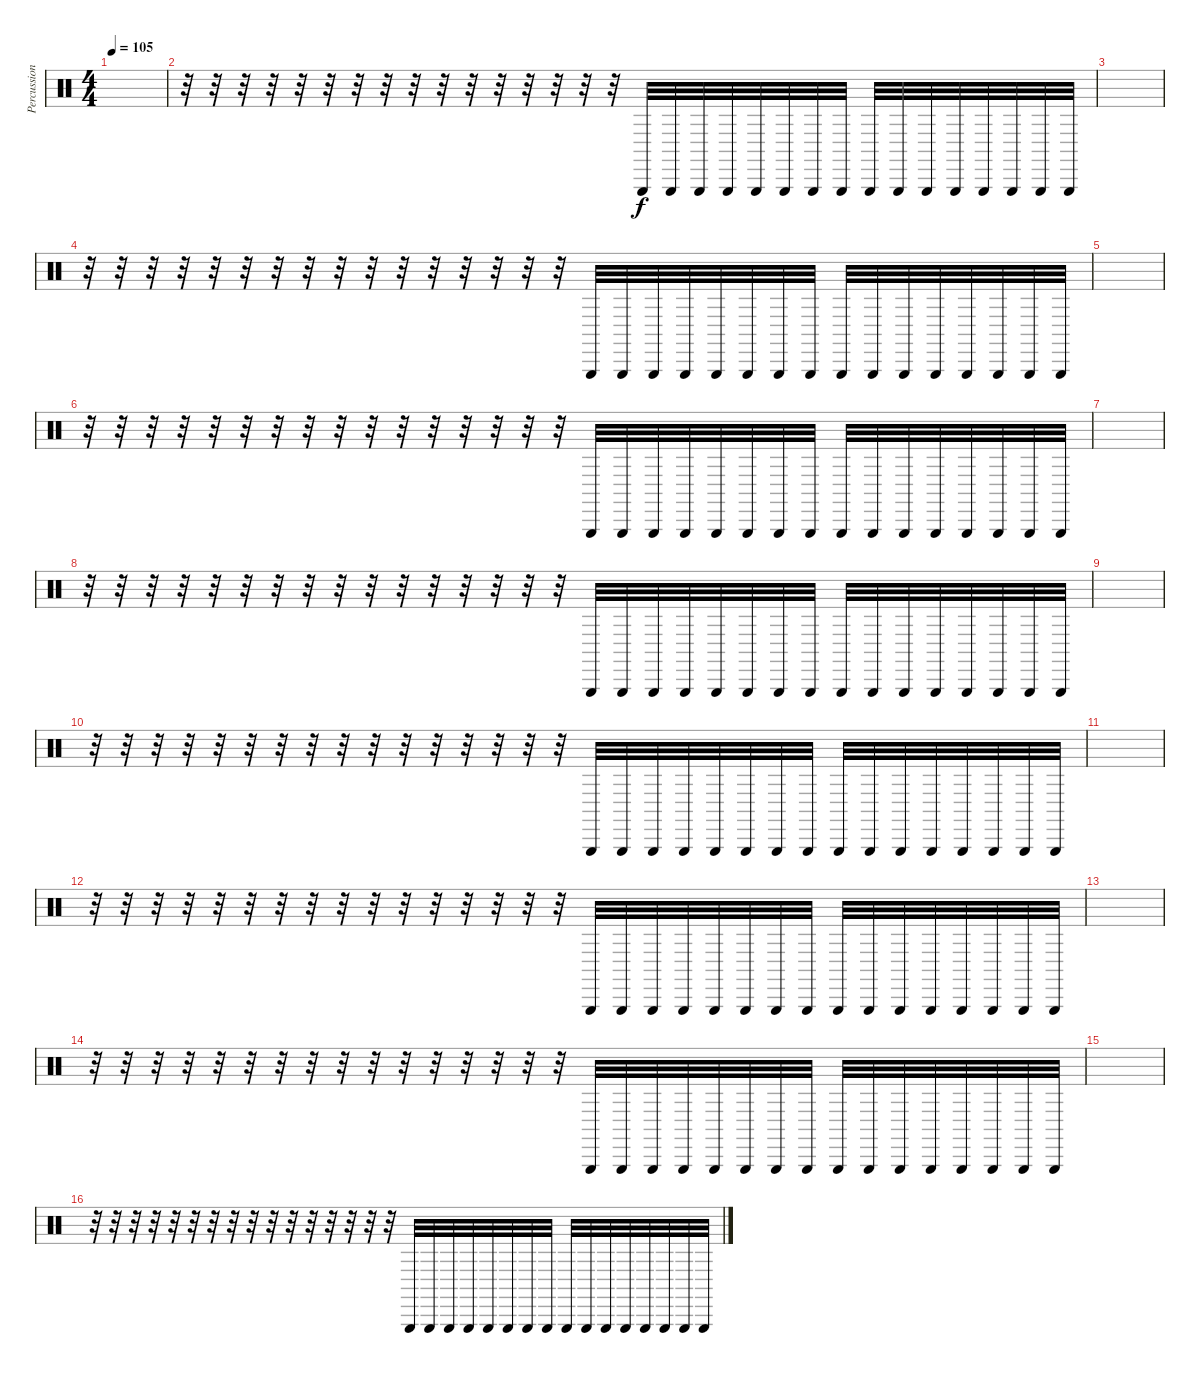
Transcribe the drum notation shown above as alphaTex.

\track ("Percussion" "Percussion") {instrument percussion}
\staff {score}
\articulation defaults
\ts (4 4)
\tempo 105
\clef neutral
\ks c
|
r.32 r.32 r.32 r.32 r.32 r.32 r.32 r.32 r.32 r.32 r.32 r.32 r.32 r.32 r.32 r.32 "Triangle (hit)".32{balance 4} "Triangle (hit)".32{balance 5} "Triangle (hit)".32{balance 11} "Triangle (hit)".32{balance 8} "Triangle (hit)".32{balance 3} "Triangle (hit)".32{balance 7} "Triangle (hit)".32{balance 14} "Triangle (hit)".32{balance 10} "Triangle (hit)".32{balance 5} "Triangle (hit)".32{balance 5} "Triangle (hit)".32{balance 16} "Triangle (hit)".32{balance 11} "Triangle (hit)".32{balance 8} "Triangle (hit)".32{balance 5} "Triangle (hit)".32{balance 4} "Triangle (hit)".32{balance 8} |
|
r.32 r.32 r.32 r.32 r.32 r.32 r.32 r.32 r.32 r.32 r.32 r.32 r.32 r.32 r.32 r.32 "Triangle (hit)".32{balance 4} "Triangle (hit)".32{balance 5} "Triangle (hit)".32{balance 11} "Triangle (hit)".32{balance 8} "Triangle (hit)".32{balance 3} "Triangle (hit)".32{balance 7} "Triangle (hit)".32{balance 14} "Triangle (hit)".32{balance 10} "Triangle (hit)".32{balance 5} "Triangle (hit)".32{balance 5} "Triangle (hit)".32{balance 13} "Triangle (hit)".32{balance 11} "Triangle (hit)".32{balance 8} "Triangle (hit)".32{balance 5} "Triangle (hit)".32{balance 4} "Triangle (hit)".32{balance 8} |
|
r.32 r.32 r.32 r.32 r.32 r.32 r.32 r.32 r.32 r.32 r.32 r.32 r.32 r.32 r.32 r.32 "Triangle (hit)".32{balance 4} "Triangle (hit)".32{balance 5} "Triangle (hit)".32{balance 11} "Triangle (hit)".32{balance 8} "Triangle (hit)".32{balance 3} "Triangle (hit)".32{balance 7} "Triangle (hit)".32{balance 14} "Triangle (hit)".32{balance 10} "Triangle (hit)".32{balance 5} "Triangle (hit)".32{balance 5} "Triangle (hit)".32{balance 13} "Triangle (hit)".32{balance 11} "Triangle (hit)".32{balance 8} "Triangle (hit)".32{balance 5} "Triangle (hit)".32{balance 4} "Triangle (hit)".32{balance 8} |
|
r.32 r.32 r.32 r.32 r.32 r.32 r.32 r.32 r.32 r.32 r.32 r.32 r.32 r.32 r.32 r.32 "Triangle (hit)".32{balance 4} "Triangle (hit)".32{balance 5} "Triangle (hit)".32{balance 11} "Triangle (hit)".32{balance 8} "Triangle (hit)".32{balance 3} "Triangle (hit)".32{balance 7} "Triangle (hit)".32{balance 14} "Triangle (hit)".32{balance 10} "Triangle (hit)".32{balance 5} "Triangle (hit)".32{balance 5} "Triangle (hit)".32{balance 13} "Triangle (hit)".32{balance 11} "Triangle (hit)".32{balance 8} "Triangle (hit)".32{balance 5} "Triangle (hit)".32{balance 4} "Triangle (hit)".32{balance 8} |
|
r.32 r.32 r.32 r.32 r.32 r.32 r.32 r.32 r.32 r.32 r.32 r.32 r.32 r.32 r.32 r.32 "Triangle (hit)".32{balance 4} "Triangle (hit)".32{balance 5} "Triangle (hit)".32{balance 11} "Triangle (hit)".32{balance 8} "Triangle (hit)".32{balance 3} "Triangle (hit)".32{balance 7} "Triangle (hit)".32{balance 14} "Triangle (hit)".32{balance 10} "Triangle (hit)".32{balance 5} "Triangle (hit)".32{balance 5} "Triangle (hit)".32{balance 13} "Triangle (hit)".32{balance 11} "Triangle (hit)".32{balance 8} "Triangle (hit)".32{balance 5} "Triangle (hit)".32{balance 4} "Triangle (hit)".32{balance 8} |
|
r.32 r.32 r.32 r.32 r.32 r.32 r.32 r.32 r.32 r.32 r.32 r.32 r.32 r.32 r.32 r.32 "Triangle (hit)".32{balance 4} "Triangle (hit)".32{balance 5} "Triangle (hit)".32{balance 11} "Triangle (hit)".32{balance 8} "Triangle (hit)".32{balance 3} "Triangle (hit)".32{balance 7} "Triangle (hit)".32{balance 14} "Triangle (hit)".32{balance 10} "Triangle (hit)".32{balance 5} "Triangle (hit)".32{balance 5} "Triangle (hit)".32{balance 13} "Triangle (hit)".32{balance 11} "Triangle (hit)".32{balance 8} "Triangle (hit)".32{balance 5} "Triangle (hit)".32{balance 4} "Triangle (hit)".32{balance 8} |
|
r.32 r.32 r.32 r.32 r.32 r.32 r.32 r.32 r.32 r.32 r.32 r.32 r.32 r.32 r.32 r.32 "Triangle (hit)".32{balance 4} "Triangle (hit)".32{balance 5} "Triangle (hit)".32{balance 11} "Triangle (hit)".32{balance 8} "Triangle (hit)".32{balance 3} "Triangle (hit)".32{balance 7} "Triangle (hit)".32{balance 14} "Triangle (hit)".32{balance 10} "Triangle (hit)".32{balance 5} "Triangle (hit)".32{balance 5} "Triangle (hit)".32{balance 13} "Triangle (hit)".32{balance 11} "Triangle (hit)".32{balance 8} "Triangle (hit)".32{balance 5} "Triangle (hit)".32{balance 4} "Triangle (hit)".32{balance 8} |
|
r.32 r.32 r.32 r.32 r.32 r.32 r.32 r.32 r.32 r.32 r.32 r.32 r.32 r.32 r.32 r.32 "Triangle (hit)".32{balance 4} "Triangle (hit)".32{balance 5} "Triangle (hit)".32{balance 11} "Triangle (hit)".32{balance 8} "Triangle (hit)".32{balance 3} "Triangle (hit)".32{balance 7} "Triangle (hit)".32{balance 14} "Triangle (hit)".32{balance 10} "Triangle (hit)".32{balance 5} "Triangle (hit)".32{balance 5} "Triangle (hit)".32{balance 13} "Triangle (hit)".32{balance 11} "Triangle (hit)".32{balance 8} "Triangle (hit)".32{balance 5} "Triangle (hit)".32{balance 4} "Triangle (hit)".32{balance 8}
